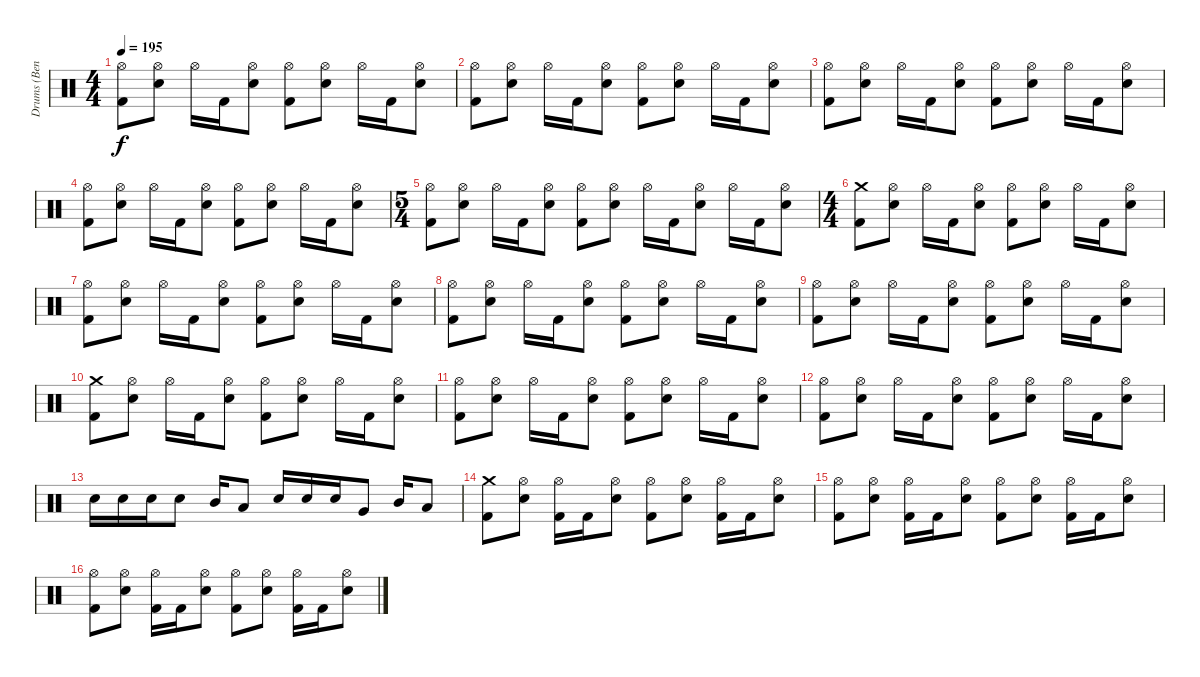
\track ("Drums (Ben)" "Drums (Ben") {instrument percussion}
\staff {score}
\articulation defaults
\ts (4 4)
\tempo 195
\clef neutral
\ks c
("Hi-Hat (open)" "Kick (hit) 2").8{dy f} ("Hi-Hat (open)" "Snare (hit) 2").8 "Hi-Hat (open)".16 "Kick (hit) 2".16 ("Hi-Hat (open)" "Snare (hit) 2").8 ("Hi-Hat (open)" "Kick (hit) 2").8 ("Hi-Hat (open)" "Snare (hit) 2").8 "Hi-Hat (open)".16 "Kick (hit) 2".16 ("Hi-Hat (open)" "Snare (hit) 2").8 |
("Hi-Hat (open)" "Kick (hit) 2").8 ("Hi-Hat (open)" "Snare (hit) 2").8 "Hi-Hat (open)".16 "Kick (hit) 2".16 ("Hi-Hat (open)" "Snare (hit) 2").8 ("Hi-Hat (open)" "Kick (hit) 2").8 ("Hi-Hat (open)" "Snare (hit) 2").8 "Hi-Hat (open)".16 "Kick (hit) 2".16 ("Hi-Hat (open)" "Snare (hit) 2").8 |
("Hi-Hat (open)" "Kick (hit) 2").8 ("Hi-Hat (open)" "Snare (hit) 2").8 "Hi-Hat (open)".16 "Kick (hit) 2".16 ("Hi-Hat (open)" "Snare (hit) 2").8 ("Hi-Hat (open)" "Kick (hit) 2").8 ("Hi-Hat (open)" "Snare (hit) 2").8 "Hi-Hat (open)".16 "Kick (hit) 2".16 ("Hi-Hat (open)" "Snare (hit) 2").8 |
("Hi-Hat (open)" "Kick (hit) 2").8 ("Hi-Hat (open)" "Snare (hit) 2").8 "Hi-Hat (open)".16 "Kick (hit) 2".16 ("Hi-Hat (open)" "Snare (hit) 2").8 ("Hi-Hat (open)" "Kick (hit) 2").8 ("Hi-Hat (open)" "Snare (hit) 2").8 "Hi-Hat (open)".16 "Kick (hit) 2".16 ("Hi-Hat (open)" "Snare (hit) 2").8 |
\ts (5 4)
("Hi-Hat (open)" "Kick (hit) 2").8 ("Hi-Hat (open)" "Snare (hit) 2").8 "Hi-Hat (open)".16 "Kick (hit) 2".16 ("Hi-Hat (open)" "Snare (hit) 2").8 ("Hi-Hat (open)" "Kick (hit) 2").8 ("Hi-Hat (open)" "Snare (hit) 2").8 "Hi-Hat (open)".16 "Kick (hit) 2".16 ("Hi-Hat (open)" "Snare (hit) 2").8 "Hi-Hat (open)".16 "Kick (hit) 2".16 ("Hi-Hat (open)" "Snare (hit) 2").8 |
\ts (4 4)
("Crash medium (hit)" "Kick (hit) 2").8 ("Hi-Hat (open)" "Snare (hit) 2").8 "Hi-Hat (open)".16 "Kick (hit) 2".16 ("Hi-Hat (open)" "Snare (hit) 2").8 ("Hi-Hat (open)" "Kick (hit) 2").8 ("Hi-Hat (open)" "Snare (hit) 2").8 "Hi-Hat (open)".16 "Kick (hit) 2".16 ("Hi-Hat (open)" "Snare (hit) 2").8 |
("Hi-Hat (open)" "Kick (hit) 2").8 ("Hi-Hat (open)" "Snare (hit) 2").8 "Hi-Hat (open)".16 "Kick (hit) 2".16 ("Hi-Hat (open)" "Snare (hit) 2").8 ("Hi-Hat (open)" "Kick (hit) 2").8 ("Hi-Hat (open)" "Snare (hit) 2").8 "Hi-Hat (open)".16 "Kick (hit) 2".16 ("Hi-Hat (open)" "Snare (hit) 2").8 |
("Hi-Hat (open)" "Kick (hit) 2").8 ("Hi-Hat (open)" "Snare (hit) 2").8 "Hi-Hat (open)".16 "Kick (hit) 2".16 ("Hi-Hat (open)" "Snare (hit) 2").8 ("Hi-Hat (open)" "Kick (hit) 2").8 ("Hi-Hat (open)" "Snare (hit) 2").8 "Hi-Hat (open)".16 "Kick (hit) 2".16 ("Hi-Hat (open)" "Snare (hit) 2").8 |
("Hi-Hat (open)" "Kick (hit) 2").8 ("Hi-Hat (open)" "Snare (hit) 2").8 "Hi-Hat (open)".16 "Kick (hit) 2".16 ("Hi-Hat (open)" "Snare (hit) 2").8 ("Hi-Hat (open)" "Kick (hit) 2").8 ("Hi-Hat (open)" "Snare (hit) 2").8 "Hi-Hat (open)".16 "Kick (hit) 2".16 ("Hi-Hat (open)" "Snare (hit) 2").8 |
("Crash medium (hit)" "Kick (hit) 2").8 ("Hi-Hat (open)" "Snare (hit) 2").8 "Hi-Hat (open)".16 "Kick (hit) 2".16 ("Hi-Hat (open)" "Snare (hit) 2").8 ("Hi-Hat (open)" "Kick (hit) 2").8 ("Hi-Hat (open)" "Snare (hit) 2").8 "Hi-Hat (open)".16 "Kick (hit) 2".16 ("Hi-Hat (open)" "Snare (hit) 2").8 |
("Hi-Hat (open)" "Kick (hit) 2").8 ("Hi-Hat (open)" "Snare (hit) 2").8 "Hi-Hat (open)".16 "Kick (hit) 2".16 ("Hi-Hat (open)" "Snare (hit) 2").8 ("Hi-Hat (open)" "Kick (hit) 2").8 ("Hi-Hat (open)" "Snare (hit) 2").8 "Hi-Hat (open)".16 "Kick (hit) 2".16 ("Hi-Hat (open)" "Snare (hit) 2").8 |
("Hi-Hat (open)" "Kick (hit) 2").8 ("Hi-Hat (open)" "Snare (hit) 2").8 "Hi-Hat (open)".16 "Kick (hit) 2".16 ("Hi-Hat (open)" "Snare (hit) 2").8 ("Hi-Hat (open)" "Kick (hit) 2").8 ("Hi-Hat (open)" "Snare (hit) 2").8 "Hi-Hat (open)".16 "Kick (hit) 2".16 ("Hi-Hat (open)" "Snare (hit) 2").8 |
"Snare (hit) 2".16 "Snare (hit) 2".16 "Snare (hit) 2".16 "Snare (hit) 2".8 "Mid Tom (hit)".16 "Low Tom (hit)".8 "Snare (hit) 2".16 "Snare (hit) 2".16 "Snare (hit) 2".16 "Very Low Tom (hit)".8 "Mid Tom (hit)".16 "Low Tom (hit)".8 |
("Crash medium (hit)" "Kick (hit) 2").8 ("Hi-Hat (open)" "Snare (hit) 2").8 ("Hi-Hat (open)" "Kick (hit) 2").16 "Kick (hit) 2".16 ("Hi-Hat (open)" "Snare (hit) 2").8 ("Hi-Hat (open)" "Kick (hit) 2").8 ("Hi-Hat (open)" "Snare (hit) 2").8 ("Hi-Hat (open)" "Kick (hit) 2").16 "Kick (hit) 2".16 ("Hi-Hat (open)" "Snare (hit) 2").8 |
("Hi-Hat (open)" "Kick (hit) 2").8 ("Hi-Hat (open)" "Snare (hit) 2").8 ("Hi-Hat (open)" "Kick (hit) 2").16 "Kick (hit) 2".16 ("Hi-Hat (open)" "Snare (hit) 2").8 ("Hi-Hat (open)" "Kick (hit) 2").8 ("Hi-Hat (open)" "Snare (hit) 2").8 ("Hi-Hat (open)" "Kick (hit) 2").16 "Kick (hit) 2".16 ("Hi-Hat (open)" "Snare (hit) 2").8 |
("Hi-Hat (open)" "Kick (hit) 2").8 ("Hi-Hat (open)" "Snare (hit) 2").8 ("Hi-Hat (open)" "Kick (hit) 2").16 "Kick (hit) 2".16 ("Hi-Hat (open)" "Snare (hit) 2").8 ("Hi-Hat (open)" "Kick (hit) 2").8 ("Hi-Hat (open)" "Snare (hit) 2").8 ("Hi-Hat (open)" "Kick (hit) 2").16 "Kick (hit) 2".16 ("Hi-Hat (open)" "Snare (hit) 2").8
